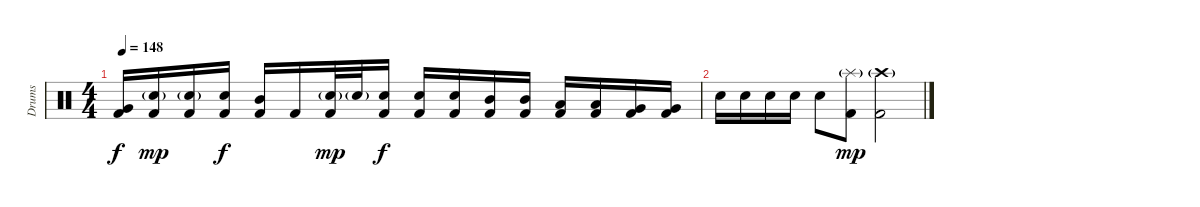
\track ("Drums" "Drums") {instrument percussion}
\staff {score}
\articulation defaults
\ts (4 4)
\tempo 148
\clef neutral
\ks c
("Very Low Tom (hit)" "Kick (hit) 2").16{dy f} ("Snare (hit) 2"{g} "Kick (hit) 2").16{dy mp} ("Snare (hit) 2"{g} "Kick (hit) 2").16 ("Snare (hit) 2" "Kick (hit) 2").16{dy f} ("Mid Tom (hit)" "Kick (hit) 2").16 "Kick (hit) 2".16 ("Snare (hit) 2"{g} "Kick (hit) 2").32{dy mp} "Snare (hit) 2"{g}.32 ("Snare (hit) 2" "Kick (hit) 2").16{dy f} ("Snare (hit) 2" "Kick (hit) 2").16 ("Snare (hit) 2" "Kick (hit) 2").16 ("Mid Tom (hit)" "Kick (hit) 2").16 ("Mid Tom (hit)" "Kick (hit) 2").16 ("Low Tom (hit)" "Kick (hit) 2").16 ("Low Tom (hit)" "Kick (hit) 2").16 ("Very Low Tom (hit)" "Kick (hit) 2").16 ("Very Low Tom (hit)" "Kick (hit) 2").16 |
"Snare (hit) 2".16 "Snare (hit) 2".16 "Snare (hit) 2".16 "Snare (hit) 2".16 "Snare (hit) 2".8 ("Splash (hit)"{g} "Kick (hit) 2").8{dy mp} ("Crash high (hit)"{g} "Kick (hit) 2").2
